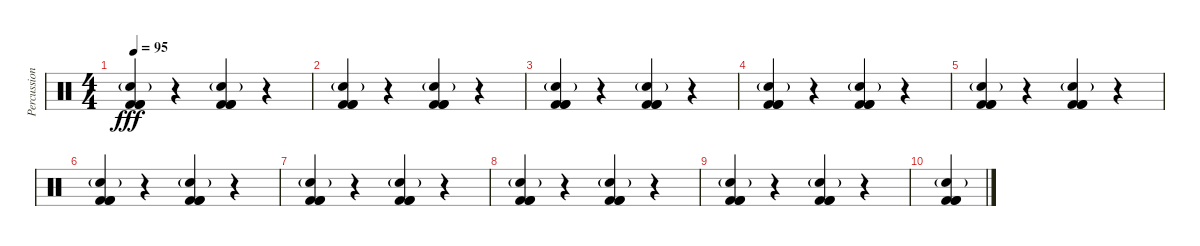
\track ("Percussion" "Percussion") {instrument percussion}
\staff {score}
\articulation defaults
\ts (4 4)
\tempo 95
\clef neutral
\ks c
("Hand Clap (hit)"{g} "Kick (hit) 2" "Kick (hit) 2" "Kick (hit) 2").4{bd 120 dy fff} r.4 ("Hand Clap (hit)"{g} "Kick (hit) 2" "Kick (hit) 2" "Kick (hit) 2").4{bd 120} r.4 |
("Hand Clap (hit)"{g} "Kick (hit) 2" "Kick (hit) 2" "Kick (hit) 2").4{bd 120} r.4 ("Hand Clap (hit)"{g} "Kick (hit) 2" "Kick (hit) 2" "Kick (hit) 2").4{bd 120} r.4 |
("Hand Clap (hit)"{g} "Kick (hit) 2" "Kick (hit) 2" "Kick (hit) 2").4{bd 120} r.4 ("Hand Clap (hit)"{g} "Kick (hit) 2" "Kick (hit) 2" "Kick (hit) 2").4{bd 120} r.4 |
("Hand Clap (hit)"{g} "Kick (hit) 2" "Kick (hit) 2" "Kick (hit) 2").4{bd 120} r.4 ("Hand Clap (hit)"{g} "Kick (hit) 2" "Kick (hit) 2" "Kick (hit) 2").4{bd 120} r.4 |
("Hand Clap (hit)"{g} "Kick (hit) 2" "Kick (hit) 2" "Kick (hit) 2").4{bd 120} r.4 ("Hand Clap (hit)"{g} "Kick (hit) 2" "Kick (hit) 2" "Kick (hit) 2").4{bd 120} r.4 |
("Hand Clap (hit)"{g} "Kick (hit) 2" "Kick (hit) 2" "Kick (hit) 2").4{bd 120} r.4 ("Hand Clap (hit)"{g} "Kick (hit) 2" "Kick (hit) 2" "Kick (hit) 2").4{bd 120} r.4 |
("Hand Clap (hit)"{g} "Kick (hit) 2" "Kick (hit) 2" "Kick (hit) 2").4{bd 120} r.4 ("Hand Clap (hit)"{g} "Kick (hit) 2" "Kick (hit) 2" "Kick (hit) 2").4{bd 120} r.4 |
("Hand Clap (hit)"{g} "Kick (hit) 2" "Kick (hit) 2" "Kick (hit) 2").4{bd 120} r.4 ("Hand Clap (hit)"{g} "Kick (hit) 2" "Kick (hit) 2" "Kick (hit) 2").4{bd 120} r.4 |
("Hand Clap (hit)"{g} "Kick (hit) 2" "Kick (hit) 2" "Kick (hit) 2").4{bd 120} r.4 ("Hand Clap (hit)"{g} "Kick (hit) 2" "Kick (hit) 2" "Kick (hit) 2").4{bd 120} r.4 |
("Hand Clap (hit)"{g} "Kick (hit) 2" "Kick (hit) 2" "Kick (hit) 2").4{bd 120}
